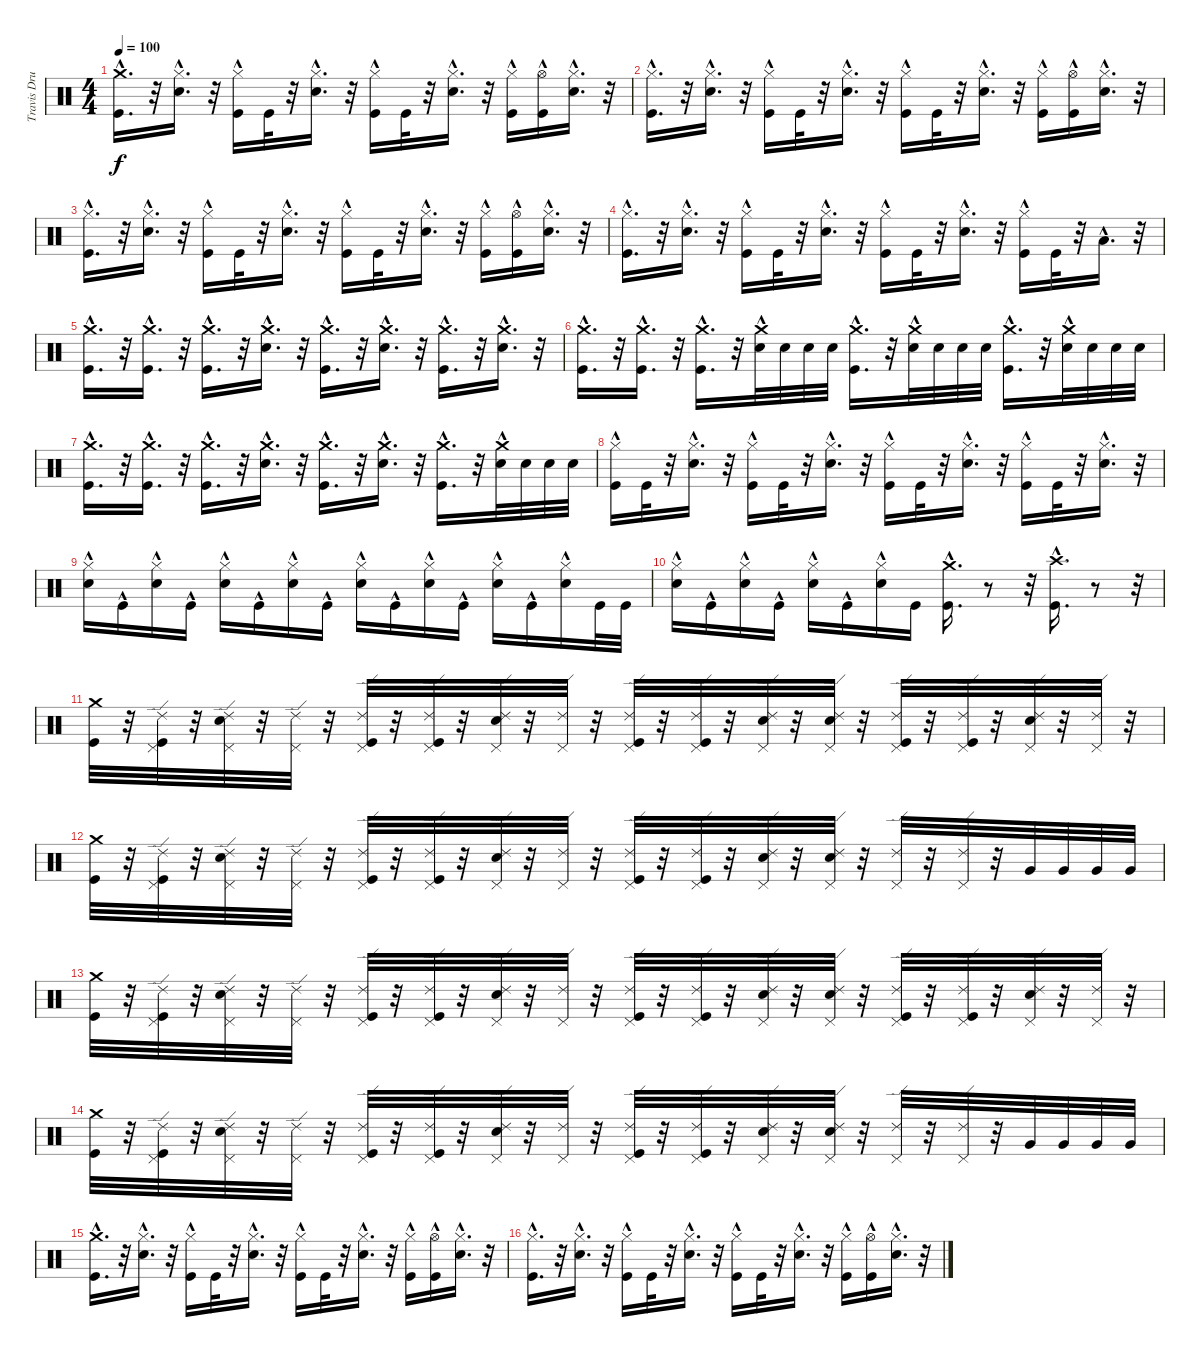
\track ("Travis Drums" "Travis Dru") {instrument percussion}
\staff {score}
\articulation defaults
\ts (4 4)
\tempo 100
\clef neutral
\ks c
("Kick (hit)"{hac} "Crash medium (hit)"{hac}).16{d dy f} r.32 ("Hi-Hat (closed)"{hac} "Snare (hit) 2"{hac}).16{d} r.32 ("Kick (hit)" "Hi-Hat (closed)"{hac}).16 "Kick (hit)".32 r.32 ("Snare (hit) 2"{hac} "Hi-Hat (closed)"{hac}).16{d} r.32 ("Kick (hit)" "Hi-Hat (closed)"{hac}).16 "Kick (hit)".32 r.32 ("Snare (hit) 2"{hac} "Hi-Hat (closed)"{hac}).16{d} r.32 ("Kick (hit)" "Hi-Hat (closed)"{hac}).16 ("Hi-Hat (open)"{hac} "Kick (hit)").16 ("Hi-Hat (closed)"{hac} "Snare (hit) 2"{hac}).16{d} r.32 |
("Kick (hit)"{hac} "Hi-Hat (closed)"{hac}).16{d} r.32 ("Hi-Hat (closed)"{hac} "Snare (hit) 2"{hac}).16{d} r.32 ("Kick (hit)" "Hi-Hat (closed)"{hac}).16 "Kick (hit)".32 r.32 ("Snare (hit) 2"{hac} "Hi-Hat (closed)"{hac}).16{d} r.32 ("Kick (hit)" "Hi-Hat (closed)"{hac}).16 "Kick (hit)".32 r.32 ("Snare (hit) 2"{hac} "Hi-Hat (closed)"{hac}).16{d} r.32 ("Kick (hit)" "Hi-Hat (closed)"{hac}).16 ("Hi-Hat (open)"{hac} "Kick (hit)").16 ("Hi-Hat (closed)"{hac} "Snare (hit) 2"{hac}).16{d} r.32 |
("Hi-Hat (closed)"{hac} "Kick (hit)"{hac}).16{d} r.32 ("Hi-Hat (closed)"{hac} "Snare (hit) 2"{hac}).16{d} r.32 ("Kick (hit)" "Hi-Hat (closed)"{hac}).16 "Kick (hit)".32 r.32 ("Snare (hit) 2"{hac} "Hi-Hat (closed)"{hac}).16{d} r.32 ("Kick (hit)" "Hi-Hat (closed)"{hac}).16 "Kick (hit)".32 r.32 ("Snare (hit) 2"{hac} "Hi-Hat (closed)"{hac}).16{d} r.32 ("Kick (hit)" "Hi-Hat (closed)"{hac}).16 ("Hi-Hat (open)"{hac} "Kick (hit)").16 ("Hi-Hat (closed)"{hac} "Snare (hit) 2"{hac}).16{d} r.32 |
("Kick (hit)"{hac} "Hi-Hat (closed)"{hac}).16{d} r.32 ("Hi-Hat (closed)"{hac} "Snare (hit) 2"{hac}).16{d} r.32 ("Kick (hit)" "Hi-Hat (closed)"{hac}).16 "Kick (hit)".32 r.32 ("Snare (hit) 2"{hac} "Hi-Hat (closed)"{hac}).16{d} r.32 ("Kick (hit)" "Hi-Hat (closed)"{hac}).16 "Kick (hit)".32 r.32 ("Snare (hit) 2"{hac} "Hi-Hat (closed)"{hac}).16{d} r.32 ("Kick (hit)" "Hi-Hat (closed)"{hac}).16 "Kick (hit)".32 r.32 "Low Tom (hit)"{hac}.16{d} r.32 |
("Kick (hit)"{hac} "Crash medium (hit)"{hac}).16{d} r.32 ("Kick (hit)"{hac} "Crash medium (hit)"{hac}).16{d} r.32 ("Kick (hit)"{hac} "Crash medium (hit)"{hac}).16{d} r.32 ("Snare (hit) 2"{hac} "Crash medium (hit)"{hac}).16{d} r.32 ("Kick (hit)"{hac} "Crash medium (hit)"{hac}).16{d} r.32 ("Snare (hit) 2"{hac} "Crash medium (hit)"{hac}).16{d} r.32 ("Kick (hit)"{hac} "Crash medium (hit)"{hac}).16{d} r.32 ("Snare (hit) 2"{hac} "Crash medium (hit)"{hac}).16{d} r.32 |
("Kick (hit)"{hac} "Crash medium (hit)"{hac}).16{d} r.32 ("Kick (hit)"{hac} "Crash medium (hit)"{hac}).16{d} r.32 ("Kick (hit)"{hac} "Crash medium (hit)"{hac}).16{d} r.32 ("Snare (hit) 2" "Crash medium (hit)"{hac}).32 "Snare (hit) 2".32 "Snare (hit) 2".32 "Snare (hit) 2".32 ("Kick (hit)"{hac} "Crash medium (hit)"{hac}).16{d} r.32 ("Snare (hit) 2" "Crash medium (hit)"{hac}).32 "Snare (hit) 2".32 "Snare (hit) 2".32 "Snare (hit) 2".32 ("Kick (hit)"{hac} "Crash medium (hit)"{hac}).16{d} r.32 ("Snare (hit) 2" "Crash medium (hit)"{hac}).32 "Snare (hit) 2".32 "Snare (hit) 2".32 "Snare (hit) 2".32 |
("Kick (hit)"{hac} "Crash medium (hit)"{hac}).16{d} r.32 ("Kick (hit)"{hac} "Crash medium (hit)"{hac}).16{d} r.32 ("Kick (hit)"{hac} "Crash medium (hit)"{hac}).16{d} r.32 ("Snare (hit) 2"{hac} "Crash medium (hit)"{hac}).16{d} r.32 ("Kick (hit)"{hac} "Crash medium (hit)"{hac}).16{d} r.32 ("Snare (hit) 2"{hac} "Crash medium (hit)"{hac}).16{d} r.32 ("Kick (hit)"{hac} "Crash medium (hit)"{hac}).16{d} r.32 ("Snare (hit) 2" "Crash medium (hit)"{hac}).32 "Snare (hit) 2".32 "Snare (hit) 2".32 "Snare (hit) 2".32 |
("Kick (hit)" "Hi-Hat (closed)"{hac}).16 "Kick (hit)".32 r.32 ("Snare (hit) 2"{hac} "Hi-Hat (closed)"{hac}).16{d} r.32 ("Kick (hit)" "Hi-Hat (closed)"{hac}).16 "Kick (hit)".32 r.32 ("Snare (hit) 2"{hac} "Hi-Hat (closed)"{hac}).16{d} r.32 ("Kick (hit)" "Hi-Hat (closed)"{hac}).16 "Kick (hit)".32 r.32 ("Snare (hit) 2"{hac} "Hi-Hat (closed)"{hac}).16{d} r.32 ("Kick (hit)" "Hi-Hat (closed)"{hac}).16 "Kick (hit)".32 r.32 ("Snare (hit) 2"{hac} "Hi-Hat (closed)"{hac}).16{d} r.32 |
("Snare (hit) 2"{hac} "Hi-Hat (closed)"{hac}).16 "Kick (hit)"{hac}.16 ("Snare (hit) 2"{hac} "Hi-Hat (closed)"{hac}).16 "Kick (hit)"{hac}.16 ("Snare (hit) 2"{hac} "Hi-Hat (closed)"{hac}).16 "Kick (hit)"{hac}.16 ("Snare (hit) 2"{hac} "Hi-Hat (closed)"{hac}).16 "Kick (hit)"{hac}.16 ("Snare (hit) 2"{hac} "Hi-Hat (closed)"{hac}).16 "Kick (hit)"{hac}.16 ("Snare (hit) 2"{hac} "Hi-Hat (closed)"{hac}).16 "Kick (hit)"{hac}.16 ("Hi-Hat (closed)"{hac} "Snare (hit) 2"{hac}).16 "Kick (hit)"{hac}.16 ("Hi-Hat (closed)"{hac} "Snare (hit) 2"{hac}).16 "Kick (hit)".32 "Kick (hit)".32 |
("Snare (hit) 2"{hac} "Hi-Hat (closed)"{hac}).16 "Kick (hit)"{hac}.16 ("Snare (hit) 2"{hac} "Hi-Hat (closed)"{hac}).16 "Kick (hit)"{hac}.16 ("Snare (hit) 2"{hac} "Hi-Hat (closed)"{hac}).16 "Kick (hit)"{hac}.16 ("Snare (hit) 2"{hac} "Hi-Hat (closed)"{hac}).16 "Kick (hit)".16 ("Kick (hit)"{hac} "Crash medium (hit)"{hac}).16{d} r.8 r.32 ("Crash high (hit)"{hac} "Kick (hit)"{hac}).16{d} r.8 r.32 |
("Crash medium (hit)" "Kick (hit)").32 r.32 ("Pedal Hi-Hat (hit)" "Ride (edge) 2" "Kick (hit)").32 r.32 ("Pedal Hi-Hat (hit)" "Ride (edge) 2" "Snare (hit) 2").32 r.32 ("Pedal Hi-Hat (hit)" "Ride (edge) 2").32 r.32 ("Kick (hit)" "Pedal Hi-Hat (hit)" "Ride (edge) 2").32 r.32 ("Kick (hit)" "Pedal Hi-Hat (hit)" "Ride (edge) 2").32 r.32 ("Snare (hit) 2" "Pedal Hi-Hat (hit)" "Ride (edge) 2").32 r.32 ("Pedal Hi-Hat (hit)" "Ride (edge) 2").32 r.32 ("Kick (hit)" "Pedal Hi-Hat (hit)" "Ride (edge) 2").32 r.32 ("Kick (hit)" "Pedal Hi-Hat (hit)" "Ride (edge) 2").32 r.32 ("Snare (hit) 2" "Pedal Hi-Hat (hit)" "Ride (edge) 2").32 r.32 ("Snare (hit) 2" "Pedal Hi-Hat (hit)" "Ride (edge) 2").32 r.32 ("Kick (hit)" "Pedal Hi-Hat (hit)" "Ride (edge) 2").32 r.32 ("Kick (hit)" "Pedal Hi-Hat (hit)" "Ride (edge) 2").32 r.32 ("Snare (hit) 2" "Pedal Hi-Hat (hit)" "Ride (edge) 2").32 r.32 ("Pedal Hi-Hat (hit)" "Ride (edge) 2").32 r.32 |
("Crash medium (hit)" "Kick (hit)").32 r.32 ("Pedal Hi-Hat (hit)" "Ride (edge) 2" "Kick (hit)").32 r.32 ("Pedal Hi-Hat (hit)" "Ride (edge) 2" "Snare (hit) 2").32 r.32 ("Pedal Hi-Hat (hit)" "Ride (edge) 2").32 r.32 ("Kick (hit)" "Pedal Hi-Hat (hit)" "Ride (edge) 2").32 r.32 ("Kick (hit)" "Pedal Hi-Hat (hit)" "Ride (edge) 2").32 r.32 ("Snare (hit) 2" "Pedal Hi-Hat (hit)" "Ride (edge) 2").32 r.32 ("Pedal Hi-Hat (hit)" "Ride (edge) 2").32 r.32 ("Kick (hit)" "Pedal Hi-Hat (hit)" "Ride (edge) 2").32 r.32 ("Kick (hit)" "Pedal Hi-Hat (hit)" "Ride (edge) 2").32 r.32 ("Snare (hit) 2" "Pedal Hi-Hat (hit)" "Ride (edge) 2").32 r.32 ("Snare (hit) 2" "Pedal Hi-Hat (hit)" "Ride (edge) 2").32 r.32 ("Pedal Hi-Hat (hit)" "Ride (edge) 2").32 r.32 ("Pedal Hi-Hat (hit)" "Ride (edge) 2").32 r.32 "Very Low Tom (hit)".32 "Very Low Tom (hit)".32 "Very Low Tom (hit)".32 "Very Low Tom (hit)".32 |
("Crash medium (hit)" "Kick (hit)").32 r.32 ("Pedal Hi-Hat (hit)" "Ride (edge) 2" "Kick (hit)").32 r.32 ("Pedal Hi-Hat (hit)" "Ride (edge) 2" "Snare (hit) 2").32 r.32 ("Pedal Hi-Hat (hit)" "Ride (edge) 2").32 r.32 ("Kick (hit)" "Pedal Hi-Hat (hit)" "Ride (edge) 2").32 r.32 ("Kick (hit)" "Pedal Hi-Hat (hit)" "Ride (edge) 2").32 r.32 ("Snare (hit) 2" "Pedal Hi-Hat (hit)" "Ride (edge) 2").32 r.32 ("Pedal Hi-Hat (hit)" "Ride (edge) 2").32 r.32 ("Kick (hit)" "Pedal Hi-Hat (hit)" "Ride (edge) 2").32 r.32 ("Kick (hit)" "Pedal Hi-Hat (hit)" "Ride (edge) 2").32 r.32 ("Snare (hit) 2" "Pedal Hi-Hat (hit)" "Ride (edge) 2").32 r.32 ("Snare (hit) 2" "Pedal Hi-Hat (hit)" "Ride (edge) 2").32 r.32 ("Kick (hit)" "Pedal Hi-Hat (hit)" "Ride (edge) 2").32 r.32 ("Kick (hit)" "Pedal Hi-Hat (hit)" "Ride (edge) 2").32 r.32 ("Snare (hit) 2" "Pedal Hi-Hat (hit)" "Ride (edge) 2").32 r.32 ("Pedal Hi-Hat (hit)" "Ride (edge) 2").32 r.32 |
("Crash medium (hit)" "Kick (hit)").32 r.32 ("Pedal Hi-Hat (hit)" "Ride (edge) 2" "Kick (hit)").32 r.32 ("Pedal Hi-Hat (hit)" "Ride (edge) 2" "Snare (hit) 2").32 r.32 ("Pedal Hi-Hat (hit)" "Ride (edge) 2").32 r.32 ("Kick (hit)" "Pedal Hi-Hat (hit)" "Ride (edge) 2").32 r.32 ("Kick (hit)" "Pedal Hi-Hat (hit)" "Ride (edge) 2").32 r.32 ("Snare (hit) 2" "Pedal Hi-Hat (hit)" "Ride (edge) 2").32 r.32 ("Pedal Hi-Hat (hit)" "Ride (edge) 2").32 r.32 ("Kick (hit)" "Pedal Hi-Hat (hit)" "Ride (edge) 2").32 r.32 ("Kick (hit)" "Pedal Hi-Hat (hit)" "Ride (edge) 2").32 r.32 ("Snare (hit) 2" "Pedal Hi-Hat (hit)" "Ride (edge) 2").32 r.32 ("Snare (hit) 2" "Pedal Hi-Hat (hit)" "Ride (edge) 2").32 r.32 ("Pedal Hi-Hat (hit)" "Ride (edge) 2").32 r.32 ("Pedal Hi-Hat (hit)" "Ride (edge) 2").32 r.32 "Very Low Tom (hit)".32 "Very Low Tom (hit)".32 "Very Low Tom (hit)".32 "Very Low Tom (hit)".32 |
("Kick (hit)"{hac} "Crash medium (hit)"{hac}).16{d} r.32 ("Hi-Hat (closed)"{hac} "Snare (hit) 2"{hac}).16{d} r.32 ("Kick (hit)" "Hi-Hat (closed)"{hac}).16 "Kick (hit)".32 r.32 ("Snare (hit) 2"{hac} "Hi-Hat (closed)"{hac}).16{d} r.32 ("Kick (hit)" "Hi-Hat (closed)"{hac}).16 "Kick (hit)".32 r.32 ("Snare (hit) 2"{hac} "Hi-Hat (closed)"{hac}).16{d} r.32 ("Kick (hit)" "Hi-Hat (closed)"{hac}).16 ("Hi-Hat (open)"{hac} "Kick (hit)").16 ("Hi-Hat (closed)"{hac} "Snare (hit) 2"{hac}).16{d} r.32 |
("Kick (hit)"{hac} "Hi-Hat (closed)"{hac}).16{d} r.32 ("Hi-Hat (closed)"{hac} "Snare (hit) 2"{hac}).16{d} r.32 ("Kick (hit)" "Hi-Hat (closed)"{hac}).16 "Kick (hit)".32 r.32 ("Snare (hit) 2"{hac} "Hi-Hat (closed)"{hac}).16{d} r.32 ("Kick (hit)" "Hi-Hat (closed)"{hac}).16 "Kick (hit)".32 r.32 ("Snare (hit) 2"{hac} "Hi-Hat (closed)"{hac}).16{d} r.32 ("Kick (hit)" "Hi-Hat (closed)"{hac}).16 ("Hi-Hat (open)"{hac} "Kick (hit)").16 ("Hi-Hat (closed)"{hac} "Snare (hit) 2"{hac}).16{d} r.32
